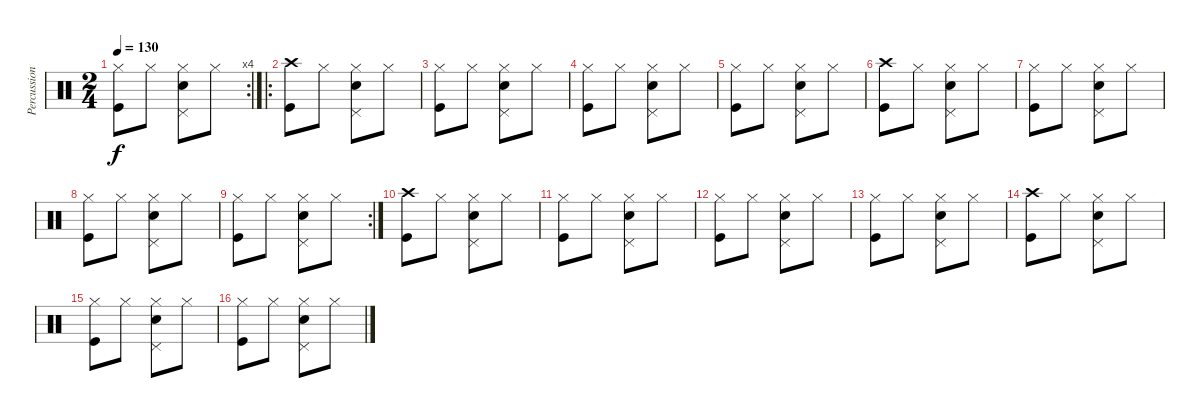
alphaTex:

\track ("Percussioni" "Percussion") {instrument percussion}
\staff {score}
\articulation defaults
\rc 4
\ts (2 4)
\tempo 130
\clef neutral
\ks c
("Hi-Hat (closed)" "Kick (hit)").8{dy f} "Hi-Hat (closed)".8 ("Hi-Hat (closed)" "Pedal Hi-Hat (hit)" "Snare (hit) 2").8 "Hi-Hat (closed)".8 |
\ro
("Crash high (hit)" "Kick (hit)").8 "Hi-Hat (closed)".8 ("Hi-Hat (closed)" "Pedal Hi-Hat (hit)" "Snare (hit) 2").8 "Hi-Hat (closed)".8 |
("Hi-Hat (closed)" "Kick (hit)").8 "Hi-Hat (closed)".8 ("Hi-Hat (closed)" "Pedal Hi-Hat (hit)" "Snare (hit) 2").8 "Hi-Hat (closed)".8 |
("Hi-Hat (closed)" "Kick (hit)").8 "Hi-Hat (closed)".8 ("Hi-Hat (closed)" "Pedal Hi-Hat (hit)" "Snare (hit) 2").8 "Hi-Hat (closed)".8 |
("Hi-Hat (closed)" "Kick (hit)").8 "Hi-Hat (closed)".8 ("Hi-Hat (closed)" "Pedal Hi-Hat (hit)" "Snare (hit) 2").8 "Hi-Hat (closed)".8 |
("Crash high (hit)" "Kick (hit)").8 "Hi-Hat (closed)".8 ("Hi-Hat (closed)" "Pedal Hi-Hat (hit)" "Snare (hit) 2").8 "Hi-Hat (closed)".8 |
("Hi-Hat (closed)" "Kick (hit)").8 "Hi-Hat (closed)".8 ("Hi-Hat (closed)" "Pedal Hi-Hat (hit)" "Snare (hit) 2").8 "Hi-Hat (closed)".8 |
("Hi-Hat (closed)" "Kick (hit)").8 "Hi-Hat (closed)".8 ("Hi-Hat (closed)" "Pedal Hi-Hat (hit)" "Snare (hit) 2").8 "Hi-Hat (closed)".8 |
\rc 2
("Hi-Hat (closed)" "Kick (hit)").8 "Hi-Hat (closed)".8 ("Hi-Hat (closed)" "Pedal Hi-Hat (hit)" "Snare (hit) 2").8 "Hi-Hat (closed)".8 |
("Crash high (hit)" "Kick (hit)").8 "Hi-Hat (closed)".8 ("Hi-Hat (closed)" "Pedal Hi-Hat (hit)" "Snare (hit) 2").8 "Hi-Hat (closed)".8 |
("Hi-Hat (closed)" "Kick (hit)").8 "Hi-Hat (closed)".8 ("Hi-Hat (closed)" "Pedal Hi-Hat (hit)" "Snare (hit) 2").8 "Hi-Hat (closed)".8 |
("Hi-Hat (closed)" "Kick (hit)").8 "Hi-Hat (closed)".8 ("Hi-Hat (closed)" "Pedal Hi-Hat (hit)" "Snare (hit) 2").8 "Hi-Hat (closed)".8 |
("Hi-Hat (closed)" "Kick (hit)").8 "Hi-Hat (closed)".8 ("Hi-Hat (closed)" "Pedal Hi-Hat (hit)" "Snare (hit) 2").8 "Hi-Hat (closed)".8 |
("Crash high (hit)" "Kick (hit)").8 "Hi-Hat (closed)".8 ("Hi-Hat (closed)" "Pedal Hi-Hat (hit)" "Snare (hit) 2").8 "Hi-Hat (closed)".8 |
("Hi-Hat (closed)" "Kick (hit)").8 "Hi-Hat (closed)".8 ("Hi-Hat (closed)" "Pedal Hi-Hat (hit)" "Snare (hit) 2").8 "Hi-Hat (closed)".8 |
("Hi-Hat (closed)" "Kick (hit)").8 "Hi-Hat (closed)".8 ("Hi-Hat (closed)" "Pedal Hi-Hat (hit)" "Snare (hit) 2").8 "Hi-Hat (closed)".8
